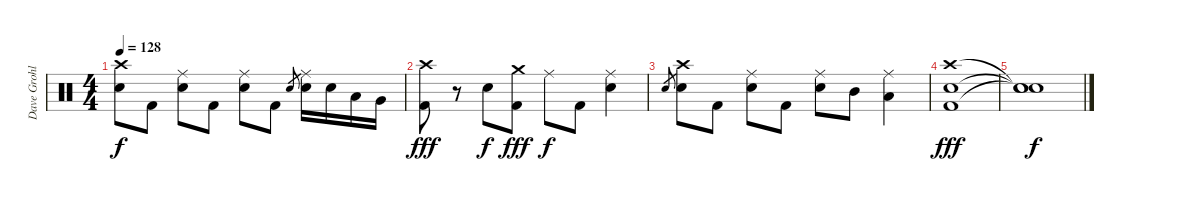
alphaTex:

\track ("Dave Grohl" "Dave Grohl") {instrument percussion}
\staff {score}
\articulation defaults
\ts (4 4)
\tempo 128
\clef neutral
\ks c
("Crash high (hit)" "Snare (hit) 2").8{dy f} "Kick (hit) 2".8 ("Ride (middle)" "Snare (hit) 2").8 "Kick (hit) 2".8 ("Ride (middle)" "Snare (hit) 2").8 "Kick (hit) 2".8 "Snare (hit) 2".8{gr} ("Ride (middle)" "Snare (hit) 2").16 "Snare (hit) 2".16 "Low Tom (hit)".16 "Very Low Tom (hit)".16 |
("Crash high (hit)" "Kick (hit) 2").8{dy fff} r.8 "Snare (hit) 2".8{dy f} ("Crash medium (hit)" "Kick (hit) 2").8{dy fff} "Ride (middle)".8{dy f} "Kick (hit) 2".8 ("Ride (middle)" "Snare (hit) 2").4 |
"Snare (hit) 2".8{gr} ("Crash high (hit)" "Snare (hit) 2").8 "Kick (hit) 2".8 ("Ride (middle)" "Snare (hit) 2").8 "Kick (hit) 2".8 ("Ride (middle)" "Snare (hit) 2").8 "Mid Tom (hit)".8 ("Ride (middle)" "Low Tom (hit)").4 |
("Crash high (hit)" "Snare (hit) 2" "Kick (hit) 2").1{dy fff} |
("Snare (hit)"{t} "Snare (hit)"{t} "Snare (hit)"{t}).1{dy f}
